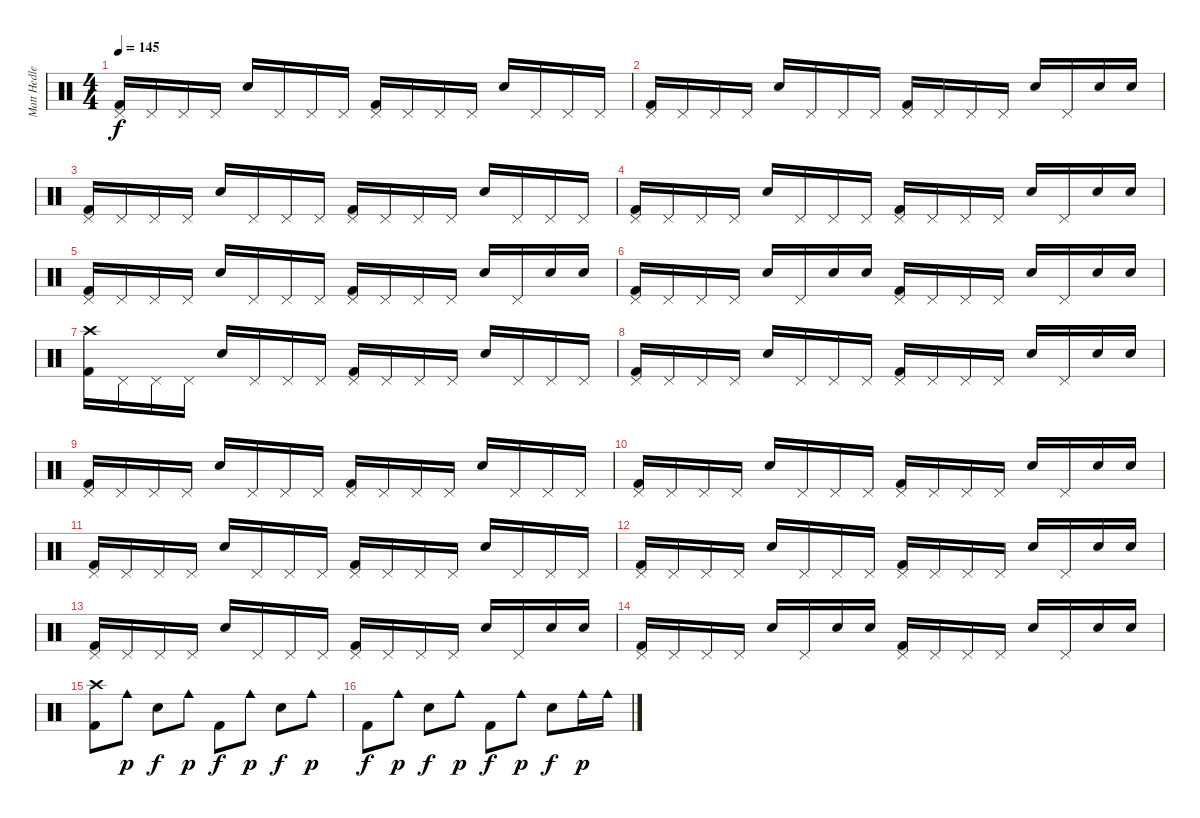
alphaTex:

\track ("Matt Hedlers" "Matt Hedle") {instrument percussion}
\staff {score}
\articulation defaults
\ts (4 4)
\tempo 145
\clef neutral
\ks c
("Pedal Hi-Hat (hit)" "Kick (hit) 2").16{dy f} "Pedal Hi-Hat (hit)".16 "Pedal Hi-Hat (hit)".16 "Pedal Hi-Hat (hit)".16 "Snare (hit) 2".16 "Pedal Hi-Hat (hit)".16 "Pedal Hi-Hat (hit)".16 "Pedal Hi-Hat (hit)".16 ("Pedal Hi-Hat (hit)" "Kick (hit) 2").16 "Pedal Hi-Hat (hit)".16 "Pedal Hi-Hat (hit)".16 "Pedal Hi-Hat (hit)".16 "Snare (hit) 2".16 "Pedal Hi-Hat (hit)".16 "Pedal Hi-Hat (hit)".16 "Pedal Hi-Hat (hit)".16 |
("Pedal Hi-Hat (hit)" "Kick (hit) 2").16 "Pedal Hi-Hat (hit)".16 "Pedal Hi-Hat (hit)".16 "Pedal Hi-Hat (hit)".16 "Snare (hit) 2".16 "Pedal Hi-Hat (hit)".16 "Pedal Hi-Hat (hit)".16 "Pedal Hi-Hat (hit)".16 ("Pedal Hi-Hat (hit)" "Kick (hit) 2").16 "Pedal Hi-Hat (hit)".16 "Pedal Hi-Hat (hit)".16 "Pedal Hi-Hat (hit)".16 "Snare (hit) 2".16 "Pedal Hi-Hat (hit)".16 "Snare (hit) 2".16 "Snare (hit) 2".16 |
("Pedal Hi-Hat (hit)" "Kick (hit) 2").16 "Pedal Hi-Hat (hit)".16 "Pedal Hi-Hat (hit)".16 "Pedal Hi-Hat (hit)".16 "Snare (hit) 2".16 "Pedal Hi-Hat (hit)".16 "Pedal Hi-Hat (hit)".16 "Pedal Hi-Hat (hit)".16 ("Pedal Hi-Hat (hit)" "Kick (hit) 2").16 "Pedal Hi-Hat (hit)".16 "Pedal Hi-Hat (hit)".16 "Pedal Hi-Hat (hit)".16 "Snare (hit) 2".16 "Pedal Hi-Hat (hit)".16 "Pedal Hi-Hat (hit)".16 "Pedal Hi-Hat (hit)".16 |
("Pedal Hi-Hat (hit)" "Kick (hit) 2").16 "Pedal Hi-Hat (hit)".16 "Pedal Hi-Hat (hit)".16 "Pedal Hi-Hat (hit)".16 "Snare (hit) 2".16 "Pedal Hi-Hat (hit)".16 "Pedal Hi-Hat (hit)".16 "Pedal Hi-Hat (hit)".16 ("Pedal Hi-Hat (hit)" "Kick (hit) 2").16 "Pedal Hi-Hat (hit)".16 "Pedal Hi-Hat (hit)".16 "Pedal Hi-Hat (hit)".16 "Snare (hit) 2".16 "Pedal Hi-Hat (hit)".16 "Snare (hit) 2".16 "Snare (hit) 2".16 |
("Pedal Hi-Hat (hit)" "Kick (hit) 2").16 "Pedal Hi-Hat (hit)".16 "Pedal Hi-Hat (hit)".16 "Pedal Hi-Hat (hit)".16 "Snare (hit) 2".16 "Pedal Hi-Hat (hit)".16 "Pedal Hi-Hat (hit)".16 "Pedal Hi-Hat (hit)".16 ("Pedal Hi-Hat (hit)" "Kick (hit) 2").16 "Pedal Hi-Hat (hit)".16 "Pedal Hi-Hat (hit)".16 "Pedal Hi-Hat (hit)".16 "Snare (hit) 2".16 "Pedal Hi-Hat (hit)".16 "Snare (hit) 2".16 "Snare (hit) 2".16 |
("Pedal Hi-Hat (hit)" "Kick (hit) 2").16 "Pedal Hi-Hat (hit)".16 "Pedal Hi-Hat (hit)".16 "Pedal Hi-Hat (hit)".16 "Snare (hit) 2".16 "Pedal Hi-Hat (hit)".16 "Snare (hit) 2".16 "Snare (hit) 2".16 ("Pedal Hi-Hat (hit)" "Kick (hit) 2").16 "Pedal Hi-Hat (hit)".16 "Pedal Hi-Hat (hit)".16 "Pedal Hi-Hat (hit)".16 "Snare (hit) 2".16 "Pedal Hi-Hat (hit)".16 "Snare (hit) 2".16 "Snare (hit) 2".16 |
("Crash high (hit)" "Kick (hit) 2").16 "Pedal Hi-Hat (hit)".16 "Pedal Hi-Hat (hit)".16 "Pedal Hi-Hat (hit)".16 "Snare (hit) 2".16 "Pedal Hi-Hat (hit)".16 "Pedal Hi-Hat (hit)".16 "Pedal Hi-Hat (hit)".16 ("Pedal Hi-Hat (hit)" "Kick (hit) 2").16 "Pedal Hi-Hat (hit)".16 "Pedal Hi-Hat (hit)".16 "Pedal Hi-Hat (hit)".16 "Snare (hit) 2".16 "Pedal Hi-Hat (hit)".16 "Pedal Hi-Hat (hit)".16 "Pedal Hi-Hat (hit)".16 |
("Pedal Hi-Hat (hit)" "Kick (hit) 2").16 "Pedal Hi-Hat (hit)".16 "Pedal Hi-Hat (hit)".16 "Pedal Hi-Hat (hit)".16 "Snare (hit) 2".16 "Pedal Hi-Hat (hit)".16 "Pedal Hi-Hat (hit)".16 "Pedal Hi-Hat (hit)".16 ("Pedal Hi-Hat (hit)" "Kick (hit) 2").16 "Pedal Hi-Hat (hit)".16 "Pedal Hi-Hat (hit)".16 "Pedal Hi-Hat (hit)".16 "Snare (hit) 2".16 "Pedal Hi-Hat (hit)".16 "Snare (hit) 2".16 "Snare (hit) 2".16 |
("Pedal Hi-Hat (hit)" "Kick (hit) 2").16 "Pedal Hi-Hat (hit)".16 "Pedal Hi-Hat (hit)".16 "Pedal Hi-Hat (hit)".16 "Snare (hit) 2".16 "Pedal Hi-Hat (hit)".16 "Pedal Hi-Hat (hit)".16 "Pedal Hi-Hat (hit)".16 ("Pedal Hi-Hat (hit)" "Kick (hit) 2").16 "Pedal Hi-Hat (hit)".16 "Pedal Hi-Hat (hit)".16 "Pedal Hi-Hat (hit)".16 "Snare (hit) 2".16 "Pedal Hi-Hat (hit)".16 "Pedal Hi-Hat (hit)".16 "Pedal Hi-Hat (hit)".16 |
("Pedal Hi-Hat (hit)" "Kick (hit) 2").16 "Pedal Hi-Hat (hit)".16 "Pedal Hi-Hat (hit)".16 "Pedal Hi-Hat (hit)".16 "Snare (hit) 2".16 "Pedal Hi-Hat (hit)".16 "Pedal Hi-Hat (hit)".16 "Pedal Hi-Hat (hit)".16 ("Pedal Hi-Hat (hit)" "Kick (hit) 2").16 "Pedal Hi-Hat (hit)".16 "Pedal Hi-Hat (hit)".16 "Pedal Hi-Hat (hit)".16 "Snare (hit) 2".16 "Pedal Hi-Hat (hit)".16 "Snare (hit) 2".16 "Snare (hit) 2".16 |
("Pedal Hi-Hat (hit)" "Kick (hit) 2").16 "Pedal Hi-Hat (hit)".16 "Pedal Hi-Hat (hit)".16 "Pedal Hi-Hat (hit)".16 "Snare (hit) 2".16 "Pedal Hi-Hat (hit)".16 "Pedal Hi-Hat (hit)".16 "Pedal Hi-Hat (hit)".16 ("Pedal Hi-Hat (hit)" "Kick (hit) 2").16 "Pedal Hi-Hat (hit)".16 "Pedal Hi-Hat (hit)".16 "Pedal Hi-Hat (hit)".16 "Snare (hit) 2".16 "Pedal Hi-Hat (hit)".16 "Pedal Hi-Hat (hit)".16 "Pedal Hi-Hat (hit)".16 |
("Pedal Hi-Hat (hit)" "Kick (hit) 2").16 "Pedal Hi-Hat (hit)".16 "Pedal Hi-Hat (hit)".16 "Pedal Hi-Hat (hit)".16 "Snare (hit) 2".16 "Pedal Hi-Hat (hit)".16 "Pedal Hi-Hat (hit)".16 "Pedal Hi-Hat (hit)".16 ("Pedal Hi-Hat (hit)" "Kick (hit) 2").16 "Pedal Hi-Hat (hit)".16 "Pedal Hi-Hat (hit)".16 "Pedal Hi-Hat (hit)".16 "Snare (hit) 2".16 "Pedal Hi-Hat (hit)".16 "Snare (hit) 2".16 "Snare (hit) 2".16 |
("Pedal Hi-Hat (hit)" "Kick (hit) 2").16 "Pedal Hi-Hat (hit)".16 "Pedal Hi-Hat (hit)".16 "Pedal Hi-Hat (hit)".16 "Snare (hit) 2".16 "Pedal Hi-Hat (hit)".16 "Pedal Hi-Hat (hit)".16 "Pedal Hi-Hat (hit)".16 ("Pedal Hi-Hat (hit)" "Kick (hit) 2").16 "Pedal Hi-Hat (hit)".16 "Pedal Hi-Hat (hit)".16 "Pedal Hi-Hat (hit)".16 "Snare (hit) 2".16 "Pedal Hi-Hat (hit)".16 "Snare (hit) 2".16 "Snare (hit) 2".16 |
("Pedal Hi-Hat (hit)" "Kick (hit) 2").16 "Pedal Hi-Hat (hit)".16 "Pedal Hi-Hat (hit)".16 "Pedal Hi-Hat (hit)".16 "Snare (hit) 2".16 "Pedal Hi-Hat (hit)".16 "Snare (hit) 2".16 "Snare (hit) 2".16 ("Pedal Hi-Hat (hit)" "Kick (hit) 2").16 "Pedal Hi-Hat (hit)".16 "Pedal Hi-Hat (hit)".16 "Pedal Hi-Hat (hit)".16 "Snare (hit) 2".16 "Pedal Hi-Hat (hit)".16 "Snare (hit) 2".16 "Snare (hit) 2".16 |
("Crash high (hit)" "Kick (hit) 2").8 "Cowbell medium (hit)".8{dy p} "Snare (hit) 2".8{dy f} "Cowbell medium (hit)".8{dy p} "Kick (hit) 2".8{dy f} "Cowbell medium (hit)".8{dy p} "Snare (hit) 2".8{dy f} "Cowbell medium (hit)".8{dy p} |
"Kick (hit) 2".8{dy f} "Cowbell medium (hit)".8{dy p} "Snare (hit) 2".8{dy f} "Cowbell medium (hit)".8{dy p} "Kick (hit) 2".8{dy f} "Cowbell medium (hit)".8{dy p} "Snare (hit) 2".8{dy f} "Cowbell medium (hit)".16{dy p} "Cowbell medium (hit)".16
